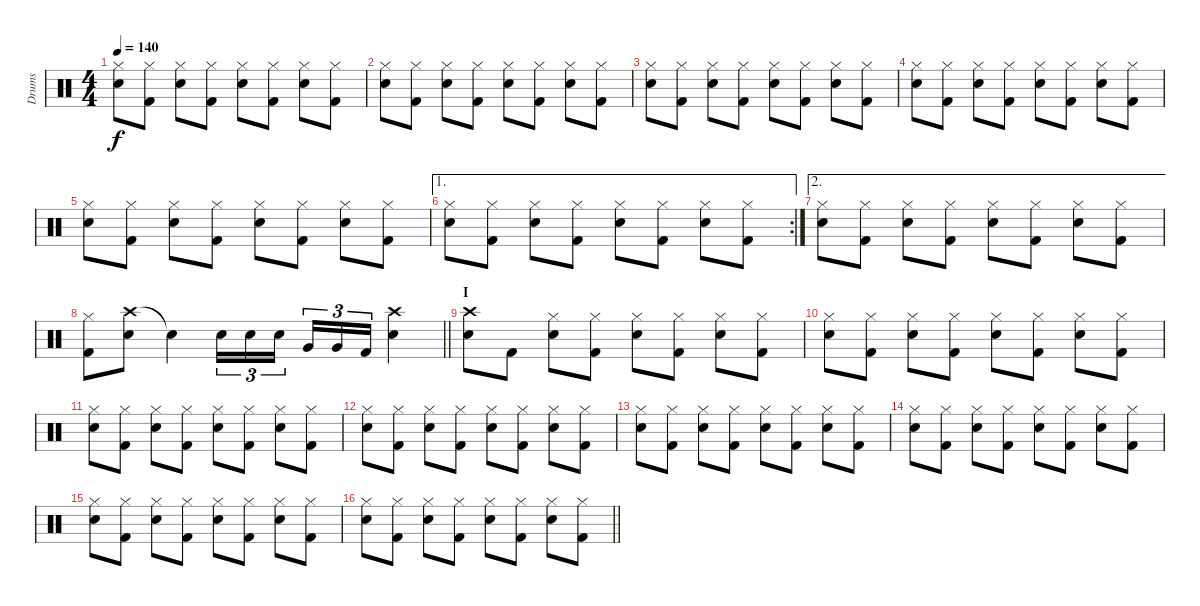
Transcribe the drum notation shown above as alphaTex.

\track ("Drums" "Drums") {instrument percussion}
\staff {score}
\articulation defaults
\ts (4 4)
\tempo 140
\clef neutral
\ks c
("Hi-Hat (closed)" "Snare (hit) 2").8{dy f} ("Hi-Hat (closed)" "Kick (hit) 2").8 ("Hi-Hat (closed)" "Snare (hit) 2").8 ("Hi-Hat (closed)" "Kick (hit) 2").8 ("Hi-Hat (closed)" "Snare (hit) 2").8 ("Hi-Hat (closed)" "Kick (hit) 2").8 ("Hi-Hat (closed)" "Snare (hit) 2").8 ("Hi-Hat (closed)" "Kick (hit) 2").8 |
("Hi-Hat (closed)" "Snare (hit) 2").8 ("Hi-Hat (closed)" "Kick (hit) 2").8 ("Hi-Hat (closed)" "Snare (hit) 2").8 ("Hi-Hat (closed)" "Kick (hit) 2").8 ("Hi-Hat (closed)" "Snare (hit) 2").8 ("Hi-Hat (closed)" "Kick (hit) 2").8 ("Hi-Hat (closed)" "Snare (hit) 2").8 ("Hi-Hat (closed)" "Kick (hit) 2").8 |
("Hi-Hat (closed)" "Snare (hit) 2").8 ("Hi-Hat (closed)" "Kick (hit) 2").8 ("Hi-Hat (closed)" "Snare (hit) 2").8 ("Hi-Hat (closed)" "Kick (hit) 2").8 ("Hi-Hat (closed)" "Snare (hit) 2").8 ("Hi-Hat (closed)" "Kick (hit) 2").8 ("Hi-Hat (closed)" "Snare (hit) 2").8 ("Hi-Hat (closed)" "Kick (hit) 2").8 |
("Hi-Hat (closed)" "Snare (hit) 2").8 ("Hi-Hat (closed)" "Kick (hit) 2").8 ("Hi-Hat (closed)" "Snare (hit) 2").8 ("Hi-Hat (closed)" "Kick (hit) 2").8 ("Hi-Hat (closed)" "Snare (hit) 2").8 ("Hi-Hat (closed)" "Kick (hit) 2").8 ("Hi-Hat (closed)" "Snare (hit) 2").8 ("Hi-Hat (closed)" "Kick (hit) 2").8 |
("Hi-Hat (closed)" "Snare (hit) 2").8 ("Hi-Hat (closed)" "Kick (hit) 2").8 ("Hi-Hat (closed)" "Snare (hit) 2").8 ("Hi-Hat (closed)" "Kick (hit) 2").8 ("Hi-Hat (closed)" "Snare (hit) 2").8 ("Hi-Hat (closed)" "Kick (hit) 2").8 ("Hi-Hat (closed)" "Snare (hit) 2").8 ("Hi-Hat (closed)" "Kick (hit) 2").8 |
\ae 1
\rc 2
("Hi-Hat (closed)" "Snare (hit) 2").8 ("Hi-Hat (closed)" "Kick (hit) 2").8 ("Hi-Hat (closed)" "Snare (hit) 2").8 ("Hi-Hat (closed)" "Kick (hit) 2").8 ("Hi-Hat (closed)" "Snare (hit) 2").8 ("Hi-Hat (closed)" "Kick (hit) 2").8 ("Hi-Hat (closed)" "Snare (hit) 2").8 ("Hi-Hat (closed)" "Kick (hit) 2").8 |
\ae 2
("Hi-Hat (closed)" "Snare (hit) 2").8 ("Hi-Hat (closed)" "Kick (hit) 2").8 ("Hi-Hat (closed)" "Snare (hit) 2").8 ("Hi-Hat (closed)" "Kick (hit) 2").8 ("Hi-Hat (closed)" "Snare (hit) 2").8 ("Hi-Hat (closed)" "Kick (hit) 2").8 ("Hi-Hat (closed)" "Snare (hit) 2").8 ("Hi-Hat (closed)" "Kick (hit) 2").8 |
\barLineRight lightlight
("Hi-Hat (closed)" "Kick (hit) 2").8 ("Crash high (hit)" "Snare (hit) 2").8 "Snare (hit)"{t}.4 "Snare (hit) 2".16{tu (3 2)} "Snare (hit) 2".16{tu (3 2)} "Snare (hit) 2".16{tu (3 2)} "Very Low Tom (hit)".16{tu (3 2)} "Very Low Tom (hit)".16{tu (3 2)} "Kick (hit) 2".16{tu (3 2)} ("Crash high (hit)" "Snare (hit) 2").4 |
\section ("" "I")
("Crash high (hit)" "Snare (hit) 2").8 "Kick (hit) 2".8 ("Hi-Hat (closed)" "Snare (hit) 2").8 ("Hi-Hat (closed)" "Kick (hit) 2").8 ("Hi-Hat (closed)" "Snare (hit) 2").8 ("Hi-Hat (closed)" "Kick (hit) 2").8 ("Hi-Hat (closed)" "Snare (hit) 2").8 ("Hi-Hat (closed)" "Kick (hit) 2").8 |
("Hi-Hat (closed)" "Snare (hit) 2").8 ("Hi-Hat (closed)" "Kick (hit) 2").8 ("Hi-Hat (closed)" "Snare (hit) 2").8 ("Hi-Hat (closed)" "Kick (hit) 2").8 ("Hi-Hat (closed)" "Snare (hit) 2").8 ("Hi-Hat (closed)" "Kick (hit) 2").8 ("Hi-Hat (closed)" "Snare (hit) 2").8 ("Hi-Hat (closed)" "Kick (hit) 2").8 |
("Hi-Hat (closed)" "Snare (hit) 2").8 ("Hi-Hat (closed)" "Kick (hit) 2").8 ("Hi-Hat (closed)" "Snare (hit) 2").8 ("Hi-Hat (closed)" "Kick (hit) 2").8 ("Hi-Hat (closed)" "Snare (hit) 2").8 ("Hi-Hat (closed)" "Kick (hit) 2").8 ("Hi-Hat (closed)" "Snare (hit) 2").8 ("Hi-Hat (closed)" "Kick (hit) 2").8 |
("Hi-Hat (closed)" "Snare (hit) 2").8 ("Hi-Hat (closed)" "Kick (hit) 2").8 ("Hi-Hat (closed)" "Snare (hit) 2").8 ("Hi-Hat (closed)" "Kick (hit) 2").8 ("Hi-Hat (closed)" "Snare (hit) 2").8 ("Hi-Hat (closed)" "Kick (hit) 2").8 ("Hi-Hat (closed)" "Snare (hit) 2").8 ("Hi-Hat (closed)" "Kick (hit) 2").8 |
("Hi-Hat (closed)" "Snare (hit) 2").8 ("Hi-Hat (closed)" "Kick (hit) 2").8 ("Hi-Hat (closed)" "Snare (hit) 2").8 ("Hi-Hat (closed)" "Kick (hit) 2").8 ("Hi-Hat (closed)" "Snare (hit) 2").8 ("Hi-Hat (closed)" "Kick (hit) 2").8 ("Hi-Hat (closed)" "Snare (hit) 2").8 ("Hi-Hat (closed)" "Kick (hit) 2").8 |
("Hi-Hat (closed)" "Snare (hit) 2").8 ("Hi-Hat (closed)" "Kick (hit) 2").8 ("Hi-Hat (closed)" "Snare (hit) 2").8 ("Hi-Hat (closed)" "Kick (hit) 2").8 ("Hi-Hat (closed)" "Snare (hit) 2").8 ("Hi-Hat (closed)" "Kick (hit) 2").8 ("Hi-Hat (closed)" "Snare (hit) 2").8 ("Hi-Hat (closed)" "Kick (hit) 2").8 |
("Hi-Hat (closed)" "Snare (hit) 2").8 ("Hi-Hat (closed)" "Kick (hit) 2").8 ("Hi-Hat (closed)" "Snare (hit) 2").8 ("Hi-Hat (closed)" "Kick (hit) 2").8 ("Hi-Hat (closed)" "Snare (hit) 2").8 ("Hi-Hat (closed)" "Kick (hit) 2").8 ("Hi-Hat (closed)" "Snare (hit) 2").8 ("Hi-Hat (closed)" "Kick (hit) 2").8 |
\barLineRight lightlight
("Hi-Hat (closed)" "Snare (hit) 2").8 ("Hi-Hat (closed)" "Kick (hit) 2").8 ("Hi-Hat (closed)" "Snare (hit) 2").8 ("Hi-Hat (closed)" "Kick (hit) 2").8 ("Hi-Hat (closed)" "Snare (hit) 2").8 ("Hi-Hat (closed)" "Kick (hit) 2").8 ("Hi-Hat (closed)" "Snare (hit) 2").8 ("Hi-Hat (closed)" "Kick (hit) 2").8
